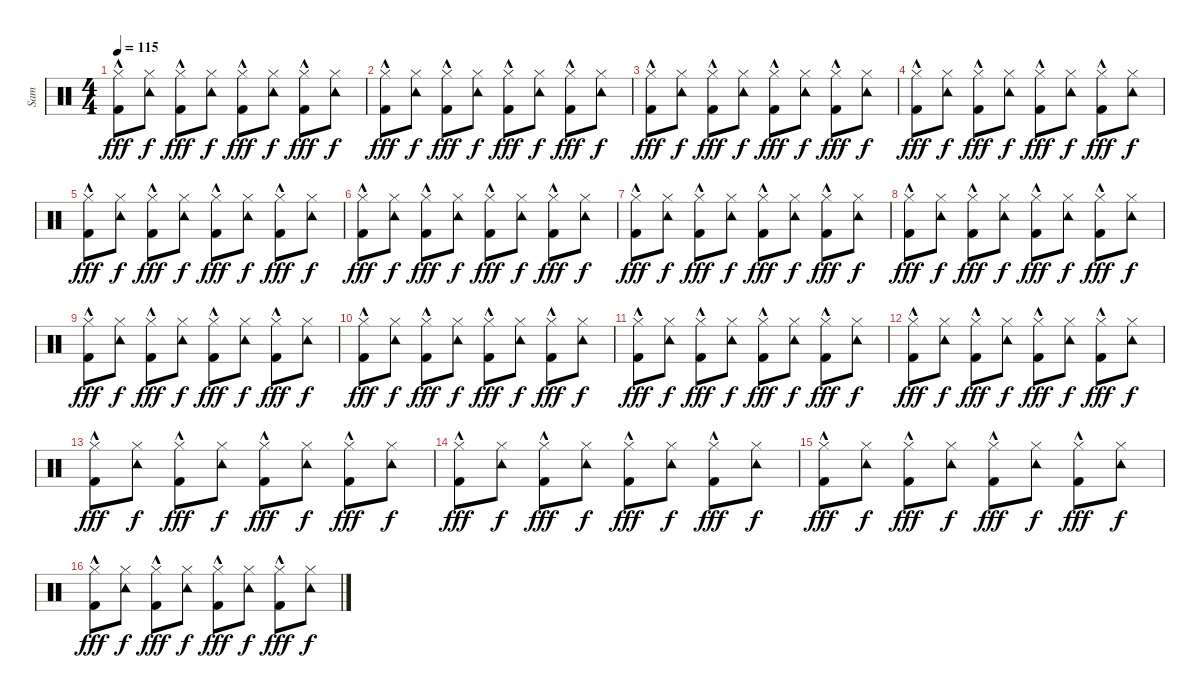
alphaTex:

\track ("Sam" "Sam") {instrument percussion}
\staff {score}
\articulation defaults
\ts (4 4)
\tempo 115
\clef neutral
\ks c
("Hi-Hat (closed)" "Kick (hit) 2"{hac}).8{dy fff} ("Tambourine (hit)" "Hi-Hat (closed)").8{dy f} ("Hi-Hat (closed)" "Kick (hit) 2"{hac}).8{dy fff} ("Tambourine (hit)" "Hi-Hat (closed)").8{dy f} ("Hi-Hat (closed)" "Kick (hit) 2"{hac}).8{dy fff} ("Tambourine (hit)" "Hi-Hat (closed)").8{dy f} ("Hi-Hat (closed)" "Kick (hit) 2"{hac}).8{dy fff} ("Tambourine (hit)" "Hi-Hat (closed)").8{dy f} |
("Hi-Hat (closed)" "Kick (hit) 2"{hac}).8{dy fff} ("Tambourine (hit)" "Hi-Hat (closed)").8{dy f} ("Hi-Hat (closed)" "Kick (hit) 2"{hac}).8{dy fff} ("Tambourine (hit)" "Hi-Hat (closed)").8{dy f} ("Hi-Hat (closed)" "Kick (hit) 2"{hac}).8{dy fff} ("Tambourine (hit)" "Hi-Hat (closed)").8{dy f} ("Hi-Hat (closed)" "Kick (hit) 2"{hac}).8{dy fff} ("Tambourine (hit)" "Hi-Hat (closed)").8{dy f} |
("Hi-Hat (closed)" "Kick (hit) 2"{hac}).8{dy fff} ("Tambourine (hit)" "Hi-Hat (closed)").8{dy f} ("Hi-Hat (closed)" "Kick (hit) 2"{hac}).8{dy fff} ("Tambourine (hit)" "Hi-Hat (closed)").8{dy f} ("Hi-Hat (closed)" "Kick (hit) 2"{hac}).8{dy fff} ("Tambourine (hit)" "Hi-Hat (closed)").8{dy f} ("Hi-Hat (closed)" "Kick (hit) 2"{hac}).8{dy fff} ("Tambourine (hit)" "Hi-Hat (closed)").8{dy f} |
("Hi-Hat (closed)" "Kick (hit) 2"{hac}).8{dy fff} ("Tambourine (hit)" "Hi-Hat (closed)").8{dy f} ("Hi-Hat (closed)" "Kick (hit) 2"{hac}).8{dy fff} ("Tambourine (hit)" "Hi-Hat (closed)").8{dy f} ("Hi-Hat (closed)" "Kick (hit) 2"{hac}).8{dy fff} ("Tambourine (hit)" "Hi-Hat (closed)").8{dy f} ("Hi-Hat (closed)" "Kick (hit) 2"{hac}).8{dy fff} ("Tambourine (hit)" "Hi-Hat (closed)").8{dy f} |
("Hi-Hat (closed)" "Kick (hit) 2"{hac}).8{dy fff} ("Tambourine (hit)" "Hi-Hat (closed)").8{dy f} ("Hi-Hat (closed)" "Kick (hit) 2"{hac}).8{dy fff} ("Tambourine (hit)" "Hi-Hat (closed)").8{dy f} ("Hi-Hat (closed)" "Kick (hit) 2"{hac}).8{dy fff} ("Tambourine (hit)" "Hi-Hat (closed)").8{dy f} ("Hi-Hat (closed)" "Kick (hit) 2"{hac}).8{dy fff} ("Tambourine (hit)" "Hi-Hat (closed)").8{dy f} |
("Hi-Hat (closed)" "Kick (hit) 2"{hac}).8{dy fff} ("Tambourine (hit)" "Hi-Hat (closed)").8{dy f} ("Hi-Hat (closed)" "Kick (hit) 2"{hac}).8{dy fff} ("Tambourine (hit)" "Hi-Hat (closed)").8{dy f} ("Hi-Hat (closed)" "Kick (hit) 2"{hac}).8{dy fff} ("Tambourine (hit)" "Hi-Hat (closed)").8{dy f} ("Hi-Hat (closed)" "Kick (hit) 2"{hac}).8{dy fff} ("Tambourine (hit)" "Hi-Hat (closed)").8{dy f} |
("Hi-Hat (closed)" "Kick (hit) 2"{hac}).8{dy fff} ("Tambourine (hit)" "Hi-Hat (closed)").8{dy f} ("Hi-Hat (closed)" "Kick (hit) 2"{hac}).8{dy fff} ("Tambourine (hit)" "Hi-Hat (closed)").8{dy f} ("Hi-Hat (closed)" "Kick (hit) 2"{hac}).8{dy fff} ("Tambourine (hit)" "Hi-Hat (closed)").8{dy f} ("Hi-Hat (closed)" "Kick (hit) 2"{hac}).8{dy fff} ("Tambourine (hit)" "Hi-Hat (closed)").8{dy f} |
("Hi-Hat (closed)" "Kick (hit) 2"{hac}).8{dy fff} ("Tambourine (hit)" "Hi-Hat (closed)").8{dy f} ("Hi-Hat (closed)" "Kick (hit) 2"{hac}).8{dy fff} ("Tambourine (hit)" "Hi-Hat (closed)").8{dy f} ("Hi-Hat (closed)" "Kick (hit) 2"{hac}).8{dy fff} ("Tambourine (hit)" "Hi-Hat (closed)").8{dy f} ("Hi-Hat (closed)" "Kick (hit) 2"{hac}).8{dy fff} ("Tambourine (hit)" "Hi-Hat (closed)").8{dy f} |
("Hi-Hat (closed)" "Kick (hit) 2"{hac}).8{dy fff} ("Tambourine (hit)" "Hi-Hat (closed)").8{dy f} ("Hi-Hat (closed)" "Kick (hit) 2"{hac}).8{dy fff} ("Tambourine (hit)" "Hi-Hat (closed)").8{dy f} ("Hi-Hat (closed)" "Kick (hit) 2"{hac}).8{dy fff} ("Tambourine (hit)" "Hi-Hat (closed)").8{dy f} ("Hi-Hat (closed)" "Kick (hit) 2"{hac}).8{dy fff} ("Tambourine (hit)" "Hi-Hat (closed)").8{dy f} |
("Hi-Hat (closed)" "Kick (hit) 2"{hac}).8{dy fff} ("Tambourine (hit)" "Hi-Hat (closed)").8{dy f} ("Hi-Hat (closed)" "Kick (hit) 2"{hac}).8{dy fff} ("Tambourine (hit)" "Hi-Hat (closed)").8{dy f} ("Hi-Hat (closed)" "Kick (hit) 2"{hac}).8{dy fff} ("Tambourine (hit)" "Hi-Hat (closed)").8{dy f} ("Hi-Hat (closed)" "Kick (hit) 2"{hac}).8{dy fff} ("Tambourine (hit)" "Hi-Hat (closed)").8{dy f} |
("Hi-Hat (closed)" "Kick (hit) 2"{hac}).8{dy fff} ("Tambourine (hit)" "Hi-Hat (closed)").8{dy f} ("Hi-Hat (closed)" "Kick (hit) 2"{hac}).8{dy fff} ("Tambourine (hit)" "Hi-Hat (closed)").8{dy f} ("Hi-Hat (closed)" "Kick (hit) 2"{hac}).8{dy fff} ("Tambourine (hit)" "Hi-Hat (closed)").8{dy f} ("Hi-Hat (closed)" "Kick (hit) 2"{hac}).8{dy fff} ("Tambourine (hit)" "Hi-Hat (closed)").8{dy f} |
("Hi-Hat (closed)" "Kick (hit) 2"{hac}).8{dy fff} ("Tambourine (hit)" "Hi-Hat (closed)").8{dy f} ("Hi-Hat (closed)" "Kick (hit) 2"{hac}).8{dy fff} ("Tambourine (hit)" "Hi-Hat (closed)").8{dy f} ("Hi-Hat (closed)" "Kick (hit) 2"{hac}).8{dy fff} ("Tambourine (hit)" "Hi-Hat (closed)").8{dy f} ("Hi-Hat (closed)" "Kick (hit) 2"{hac}).8{dy fff} ("Tambourine (hit)" "Hi-Hat (closed)").8{dy f} |
("Hi-Hat (closed)" "Kick (hit) 2"{hac}).8{dy fff} ("Tambourine (hit)" "Hi-Hat (closed)").8{dy f} ("Hi-Hat (closed)" "Kick (hit) 2"{hac}).8{dy fff} ("Tambourine (hit)" "Hi-Hat (closed)").8{dy f} ("Hi-Hat (closed)" "Kick (hit) 2"{hac}).8{dy fff} ("Tambourine (hit)" "Hi-Hat (closed)").8{dy f} ("Hi-Hat (closed)" "Kick (hit) 2"{hac}).8{dy fff} ("Tambourine (hit)" "Hi-Hat (closed)").8{dy f} |
("Hi-Hat (closed)" "Kick (hit) 2"{hac}).8{dy fff} ("Tambourine (hit)" "Hi-Hat (closed)").8{dy f} ("Hi-Hat (closed)" "Kick (hit) 2"{hac}).8{dy fff} ("Tambourine (hit)" "Hi-Hat (closed)").8{dy f} ("Hi-Hat (closed)" "Kick (hit) 2"{hac}).8{dy fff} ("Tambourine (hit)" "Hi-Hat (closed)").8{dy f} ("Hi-Hat (closed)" "Kick (hit) 2"{hac}).8{dy fff} ("Tambourine (hit)" "Hi-Hat (closed)").8{dy f} |
("Hi-Hat (closed)" "Kick (hit) 2"{hac}).8{dy fff} ("Tambourine (hit)" "Hi-Hat (closed)").8{dy f} ("Hi-Hat (closed)" "Kick (hit) 2"{hac}).8{dy fff} ("Tambourine (hit)" "Hi-Hat (closed)").8{dy f} ("Hi-Hat (closed)" "Kick (hit) 2"{hac}).8{dy fff} ("Tambourine (hit)" "Hi-Hat (closed)").8{dy f} ("Hi-Hat (closed)" "Kick (hit) 2"{hac}).8{dy fff} ("Tambourine (hit)" "Hi-Hat (closed)").8{dy f} |
("Hi-Hat (closed)" "Kick (hit) 2"{hac}).8{dy fff} ("Tambourine (hit)" "Hi-Hat (closed)").8{dy f} ("Hi-Hat (closed)" "Kick (hit) 2"{hac}).8{dy fff} ("Tambourine (hit)" "Hi-Hat (closed)").8{dy f} ("Hi-Hat (closed)" "Kick (hit) 2"{hac}).8{dy fff} ("Tambourine (hit)" "Hi-Hat (closed)").8{dy f} ("Hi-Hat (closed)" "Kick (hit) 2"{hac}).8{dy fff} ("Tambourine (hit)" "Hi-Hat (closed)").8{dy f}
